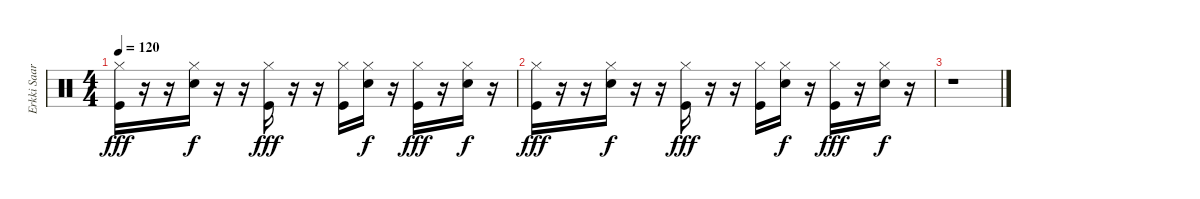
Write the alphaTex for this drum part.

\track ("Erkki Saarinen" "Erkki Saar") {instrument percussion}
\staff {score}
\articulation defaults
\ts (4 4)
\tempo 120
\clef neutral
\ks c
("Hi-Hat (closed)" "Kick (hit)").16{dy fff volume 2} r.16 r.16 ("Hi-Hat (closed)" "Snare (hit) 2").16{dy f} r.16 r.16 ("Hi-Hat (closed)" "Kick (hit)").16{dy fff} r.16 r.16{volume 1} ("Hi-Hat (closed)" "Kick (hit)").16 ("Hi-Hat (closed)" "Snare (hit) 2").16{dy f} r.16 ("Hi-Hat (closed)" "Kick (hit)").16{dy fff} r.16 ("Hi-Hat (closed)" "Snare (hit) 2").16{dy f} r.16 |
("Hi-Hat (closed)" "Kick (hit)").16{dy fff volume 0} r.16 r.16 ("Hi-Hat (closed)" "Snare (hit) 2").16{dy f} r.16 r.16 ("Hi-Hat (closed)" "Kick (hit)").16{dy fff} r.16 r.16{volume 0} ("Hi-Hat (closed)" "Kick (hit)").16 ("Hi-Hat (closed)" "Snare (hit) 2").16{dy f} r.16 ("Hi-Hat (closed)" "Kick (hit)").16{dy fff} r.16 ("Hi-Hat (closed)" "Snare (hit) 2").16{dy f} r.16 |
r.1
